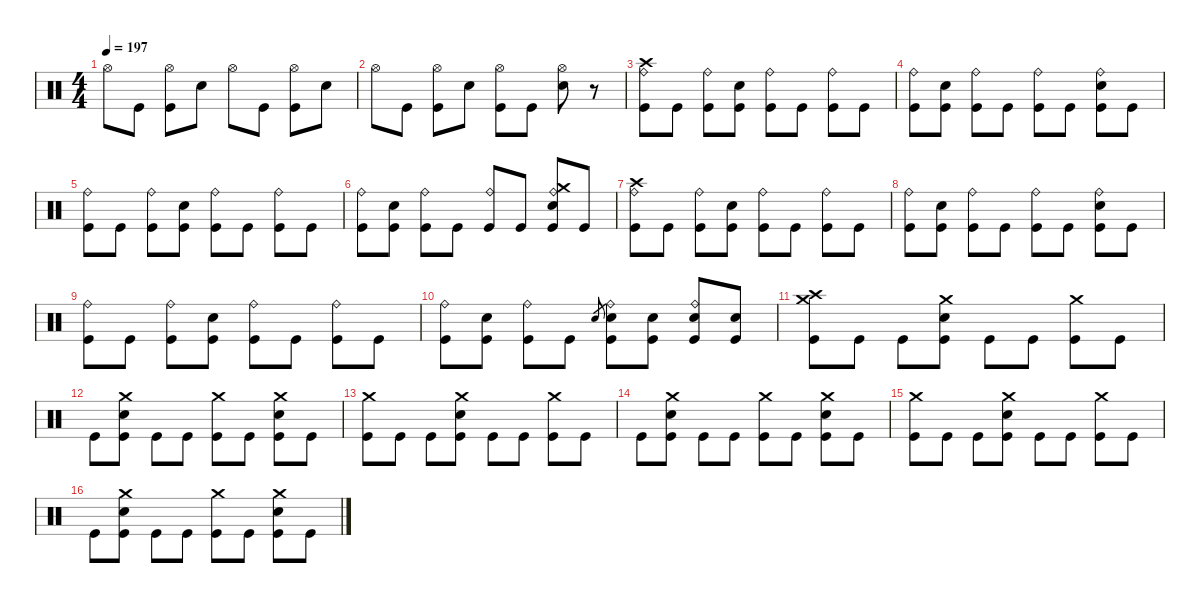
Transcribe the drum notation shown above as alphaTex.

\defaultSystemsLayout 4
\hideDynamics
\bracketExtendMode nobrackets
\singleTrackTrackNamePolicy hidden
\multiTrackTrackNamePolicy hidden
\firstSystemTrackNameMode fullname
\firstSystemTrackNameOrientation horizontal
\otherSystemsTrackNameOrientation horizontal
\track ("Drums" "drm.") {defaultSystemsLayout 4 instrument percussion}
\staff {score}
\articulation defaults
\ts (4 4)
\tempo 197
\clef neutral
\ks c "Hi-Hat (open)".8{dy mf beam Down} "Kick (hit)".8{dy f beam Down}
("Hi-Hat (open)" "Kick (hit)").8{dy mf beam Down} "Snare (hit) 2".8{dy f beam Down} "Hi-Hat (open)".8{dy mf beam Down} "Kick (hit)".8{dy f beam Down} ("Hi-Hat (open)" "Kick (hit)").8{dy mf beam Down} "Snare (hit) 2".8{dy f beam Down} |
"Hi-Hat (open)".8{dy mf beam Down} "Kick (hit)".8{dy f beam Down} ("Hi-Hat (open)" "Kick (hit)").8{dy mf beam Down} "Snare (hit) 2".8{dy f beam Down} ("Hi-Hat (open)" "Kick (hit)").8{dy mf beam Down} "Kick (hit)".8{dy f beam Down} ("Hi-Hat (open)" "Snare (hit) 2").8{dy mf beam Down} r.8{beam Down} |
("Crash high (hit)" "Ride (bell)" "Kick (hit)").8{dy f beam Down} "Kick (hit)".8{beam Down} ("Ride (bell)" "Kick (hit)").8{beam Down} ("Snare (hit) 2" "Kick (hit)").8{beam Down} ("Ride (bell)" "Kick (hit)").8{beam Down} "Kick (hit)".8{beam Down} ("Ride (bell)" "Kick (hit)").8{beam Down} "Kick (hit)".8{beam Down} |
("Ride (bell)" "Kick (hit)").8{beam Down} ("Snare (hit) 2" "Kick (hit)").8{beam Down} ("Ride (bell)" "Kick (hit)").8{beam Down} "Kick (hit)".8{beam Down} ("Ride (bell)" "Kick (hit)").8{beam Down} "Kick (hit)".8{beam Down} ("Ride (bell)" "Snare (hit) 2" "Kick (hit)").8{beam Down} "Kick (hit)".8{beam Down} |
("Ride (bell)" "Kick (hit)").8{beam Down} "Kick (hit)".8{beam Down} ("Ride (bell)" "Kick (hit)").8{beam Down} ("Snare (hit) 2" "Kick (hit)").8{beam Down} ("Ride (bell)" "Kick (hit)").8{beam Down} "Kick (hit)".8{beam Down} ("Ride (bell)" "Kick (hit)").8{beam Down} "Kick (hit)".8{beam Down} |
("Ride (bell)" "Kick (hit)").8{beam Down} ("Snare (hit) 2" "Kick (hit)").8{beam Down} ("Ride (bell)" "Kick (hit)").8{beam Down} "Kick (hit)".8{beam Down} ("Ride (bell)" "Kick (hit)").8{beam Up} "Kick (hit)".8{beam Up} ("Crash medium (hit)" "Ride (bell)" "Snare (hit) 2" "Kick (hit)").8{beam Up} "Kick (hit)".8{beam Up} |
("Crash high (hit)" "Ride (bell)" "Kick (hit)").8{beam Down} "Kick (hit)".8{beam Down} ("Ride (bell)" "Kick (hit)").8{beam Down} ("Snare (hit) 2" "Kick (hit)").8{beam Down} ("Ride (bell)" "Kick (hit)").8{beam Down} "Kick (hit)".8{beam Down} ("Ride (bell)" "Kick (hit)").8{beam Down} "Kick (hit)".8{beam Down} |
("Ride (bell)" "Kick (hit)").8{beam Down} ("Snare (hit) 2" "Kick (hit)").8{beam Down} ("Ride (bell)" "Kick (hit)").8{beam Down} "Kick (hit)".8{beam Down} ("Ride (bell)" "Kick (hit)").8{beam Down} "Kick (hit)".8{beam Down} ("Ride (bell)" "Snare (hit) 2" "Kick (hit)").8{beam Down} "Kick (hit)".8{beam Down} |
("Ride (bell)" "Kick (hit)").8{beam Down} "Kick (hit)".8{beam Down} ("Ride (bell)" "Kick (hit)").8{beam Down} ("Snare (hit) 2" "Kick (hit)").8{beam Down} ("Ride (bell)" "Kick (hit)").8{beam Down} "Kick (hit)".8{beam Down} ("Ride (bell)" "Kick (hit)").8{beam Down} "Kick (hit)".8{beam Down} |
("Ride (bell)" "Kick (hit)").8{beam Down} ("Snare (hit) 2" "Kick (hit)").8{beam Down} ("Ride (bell)" "Kick (hit)").8{beam Down} "Kick (hit)".8{beam Down} "Electric Snare (hit)".8{gr dy mf beam Up} ("Ride (bell)" "Snare (hit) 2" "Kick (hit)").8{dy f beam Down} ("Snare (hit) 2" "Kick (hit)").8{beam Down} ("Ride (bell)" "Snare (hit) 2" "Kick (hit)").8{beam Up} ("Snare (hit) 2" "Kick (hit)").8{beam Up} |
("Crash high (hit)" "Crash medium (hit)" "Kick (hit)").8{beam Down} "Kick (hit)".8{beam Down} "Kick (hit)".8{beam Down} ("Crash medium (hit)" "Snare (hit) 2" "Kick (hit)").8{beam Down} "Kick (hit)".8{beam Down} "Kick (hit)".8{beam Down} ("Crash medium (hit)" "Kick (hit)").8{beam Down} "Kick (hit)".8{beam Down} |
"Kick (hit)".8{beam Down} ("Crash medium (hit)" "Snare (hit) 2" "Kick (hit)").8{beam Down} "Kick (hit)".8{beam Down} "Kick (hit)".8{beam Down} ("Crash medium (hit)" "Kick (hit)").8{beam Down} "Kick (hit)".8{beam Down} ("Crash medium (hit)" "Snare (hit) 2" "Kick (hit)").8{beam Down} "Kick (hit)".8{beam Down} |
("Crash medium (hit)" "Kick (hit)").8{beam Down} "Kick (hit)".8{beam Down} "Kick (hit)".8{beam Down} ("Crash medium (hit)" "Snare (hit) 2" "Kick (hit)").8{beam Down} "Kick (hit)".8{beam Down} "Kick (hit)".8{beam Down} ("Crash medium (hit)" "Kick (hit)").8{beam Down} "Kick (hit)".8{beam Down} |
"Kick (hit)".8{beam Down} ("Crash medium (hit)" "Snare (hit) 2" "Kick (hit)").8{beam Down} "Kick (hit)".8{beam Down} "Kick (hit)".8{beam Down} ("Crash medium (hit)" "Kick (hit)").8{beam Down} "Kick (hit)".8{beam Down} ("Crash medium (hit)" "Snare (hit) 2" "Kick (hit)").8{beam Down} "Kick (hit)".8{beam Down} |
("Crash medium (hit)" "Kick (hit)").8{beam Down} "Kick (hit)".8{beam Down} "Kick (hit)".8{beam Down} ("Crash medium (hit)" "Snare (hit) 2" "Kick (hit)").8{beam Down} "Kick (hit)".8{beam Down} "Kick (hit)".8{beam Down} ("Crash medium (hit)" "Kick (hit)").8{beam Down} "Kick (hit)".8{beam Down} |
"Kick (hit)".8{beam Down} ("Crash medium (hit)" "Snare (hit) 2" "Kick (hit)").8{beam Down} "Kick (hit)".8{beam Down} "Kick (hit)".8{beam Down} ("Crash medium (hit)" "Kick (hit)").8{beam Down} "Kick (hit)".8{beam Down} ("Crash medium (hit)" "Snare (hit) 2" "Kick (hit)").8{beam Down} "Kick (hit)".8{beam Down}
